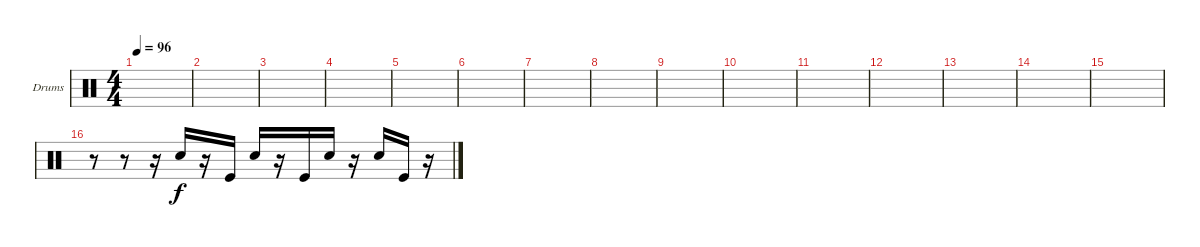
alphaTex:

\defaultSystemsLayout 4
\bracketExtendMode groupsimilarinstruments
\firstSystemTrackNameOrientation horizontal
\otherSystemsTrackNameOrientation horizontal
\track ("Павел Тетерин(Pa$ok)" "Drums") {instrument percussion}
\staff {score}
\articulation defaults
\ts (4 4)
\tempo 96
\clef neutral
\ks c
|
|
|
|
|
|
|
|
|
|
|
|
|
|
|
r.8 r.8 r.16 "Snare (hit) 2".16 r.16 "Kick (hit)".16 "Snare (hit) 2".16 r.16 "Kick (hit)".16 "Snare (hit) 2".16 r.16 "Snare (hit) 2".16 "Kick (hit)".16 r.16
